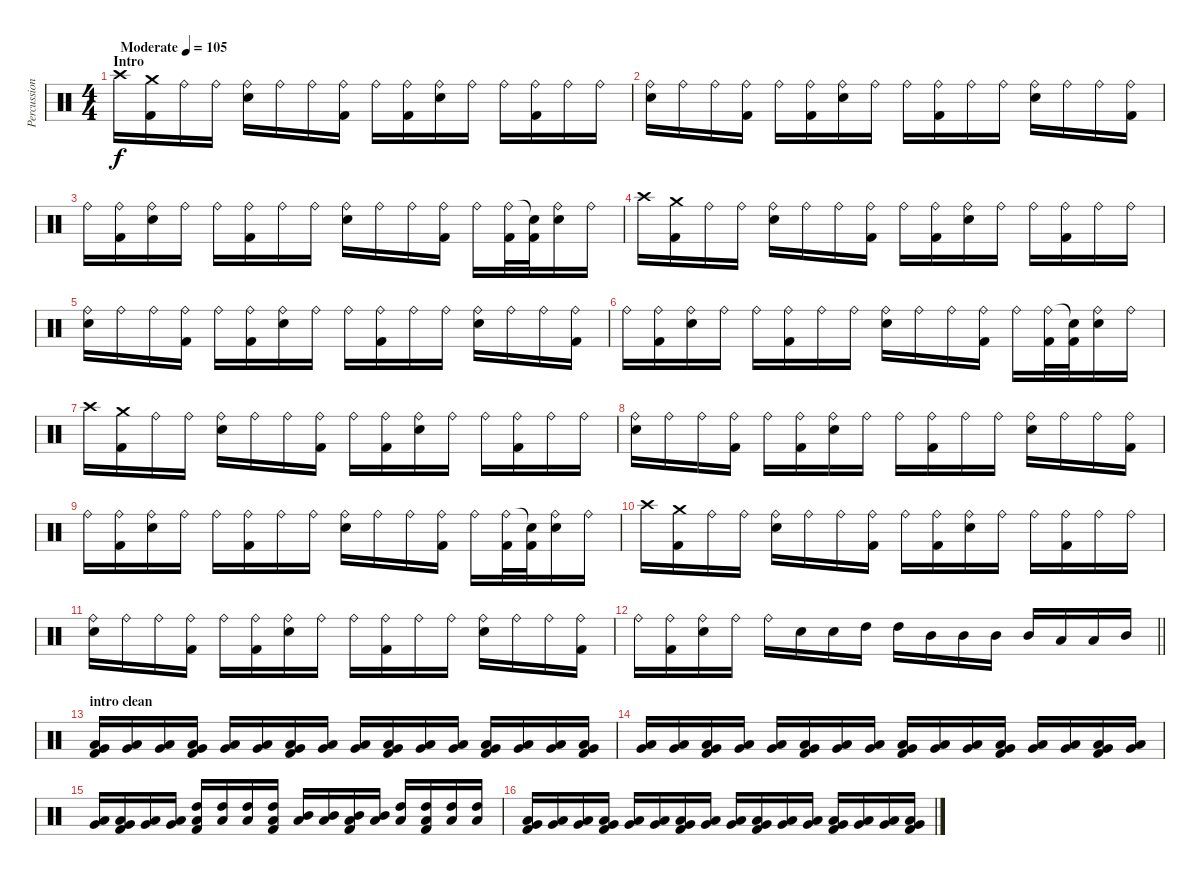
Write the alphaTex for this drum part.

\track ("Percussions" "Percussion") {instrument percussion}
\staff {score}
\articulation defaults
\ts (4 4)
\section ("" "Intro")
\tempo (105 "Moderate")
\clef neutral
\ks c "Crash high (hit)".16{dy f}
("Crash medium (hit)" "Kick (hit) 2").16 "Ride (bell)".16 "Ride (bell)".16 ("Ride (bell)" "Snare (hit) 2").16 "Ride (bell)".16 "Ride (bell)".16 ("Ride (bell)" "Kick (hit) 2").16 "Ride (bell)".16 ("Ride (bell)" "Kick (hit) 2").16 ("Ride (bell)" "Snare (hit) 2").16 "Ride (bell)".16 "Ride (bell)".16 ("Ride (bell)" "Kick (hit) 2").16 "Ride (bell)".16 "Ride (bell)".16 |
("Ride (bell)" "Snare (hit) 2").16 "Ride (bell)".16 "Ride (bell)".16 ("Ride (bell)" "Kick (hit) 2").16 "Ride (bell)".16 ("Ride (bell)" "Kick (hit) 2").16 ("Ride (bell)" "Snare (hit) 2").16 "Ride (bell)".16 "Ride (bell)".16 ("Ride (bell)" "Kick (hit) 2").16 "Ride (bell)".16 "Ride (bell)".16 ("Ride (bell)" "Snare (hit) 2").16 "Ride (bell)".16 "Ride (bell)".16 ("Ride (bell)" "Kick (hit) 2").16 |
"Ride (bell)".16 ("Ride (bell)" "Kick (hit) 2").16 ("Ride (bell)" "Snare (hit) 2").16 "Ride (bell)".16 "Ride (bell)".16 ("Ride (bell)" "Kick (hit) 2").16 "Ride (bell)".16 "Ride (bell)".16 ("Ride (bell)" "Snare (hit) 2").16 "Ride (bell)".16 "Ride (bell)".16 ("Ride (bell)" "Kick (hit) 2").16 "Ride (bell)".16 ("Ride (bell)" "Kick (hit) 2").32 ("Snare (hit)"{t} "Kick (hit) 2").32 ("Ride (bell)" "Snare (hit) 2").16 "Ride (bell)".16 |
"Crash high (hit)".16 ("Crash medium (hit)" "Kick (hit) 2").16 "Ride (bell)".16 "Ride (bell)".16 ("Ride (bell)" "Snare (hit) 2").16 "Ride (bell)".16 "Ride (bell)".16 ("Ride (bell)" "Kick (hit) 2").16 "Ride (bell)".16 ("Ride (bell)" "Kick (hit) 2").16 ("Ride (bell)" "Snare (hit) 2").16 "Ride (bell)".16 "Ride (bell)".16 ("Ride (bell)" "Kick (hit) 2").16 "Ride (bell)".16 "Ride (bell)".16 |
("Ride (bell)" "Snare (hit) 2").16 "Ride (bell)".16 "Ride (bell)".16 ("Ride (bell)" "Kick (hit) 2").16 "Ride (bell)".16 ("Ride (bell)" "Kick (hit) 2").16 ("Ride (bell)" "Snare (hit) 2").16 "Ride (bell)".16 "Ride (bell)".16 ("Ride (bell)" "Kick (hit) 2").16 "Ride (bell)".16 "Ride (bell)".16 ("Ride (bell)" "Snare (hit) 2").16 "Ride (bell)".16 "Ride (bell)".16 ("Ride (bell)" "Kick (hit) 2").16 |
"Ride (bell)".16 ("Ride (bell)" "Kick (hit) 2").16 ("Ride (bell)" "Snare (hit) 2").16 "Ride (bell)".16 "Ride (bell)".16 ("Ride (bell)" "Kick (hit) 2").16 "Ride (bell)".16 "Ride (bell)".16 ("Ride (bell)" "Snare (hit) 2").16 "Ride (bell)".16 "Ride (bell)".16 ("Ride (bell)" "Kick (hit) 2").16 "Ride (bell)".16 ("Ride (bell)" "Kick (hit) 2").32 ("Snare (hit)"{t} "Kick (hit) 2").32 ("Ride (bell)" "Snare (hit) 2").16 "Ride (bell)".16 |
"Crash high (hit)".16 ("Crash medium (hit)" "Kick (hit) 2").16 "Ride (bell)".16 "Ride (bell)".16 ("Ride (bell)" "Snare (hit) 2").16 "Ride (bell)".16 "Ride (bell)".16 ("Ride (bell)" "Kick (hit) 2").16 "Ride (bell)".16 ("Ride (bell)" "Kick (hit) 2").16 ("Ride (bell)" "Snare (hit) 2").16 "Ride (bell)".16 "Ride (bell)".16 ("Ride (bell)" "Kick (hit) 2").16 "Ride (bell)".16 "Ride (bell)".16 |
("Ride (bell)" "Snare (hit) 2").16 "Ride (bell)".16 "Ride (bell)".16 ("Ride (bell)" "Kick (hit) 2").16 "Ride (bell)".16 ("Ride (bell)" "Kick (hit) 2").16 ("Ride (bell)" "Snare (hit) 2").16 "Ride (bell)".16 "Ride (bell)".16 ("Ride (bell)" "Kick (hit) 2").16 "Ride (bell)".16 "Ride (bell)".16 ("Ride (bell)" "Snare (hit) 2").16 "Ride (bell)".16 "Ride (bell)".16 ("Ride (bell)" "Kick (hit) 2").16 |
"Ride (bell)".16 ("Ride (bell)" "Kick (hit) 2").16 ("Ride (bell)" "Snare (hit) 2").16 "Ride (bell)".16 "Ride (bell)".16 ("Ride (bell)" "Kick (hit) 2").16 "Ride (bell)".16 "Ride (bell)".16 ("Ride (bell)" "Snare (hit) 2").16 "Ride (bell)".16 "Ride (bell)".16 ("Ride (bell)" "Kick (hit) 2").16 "Ride (bell)".16 ("Ride (bell)" "Kick (hit) 2").32 ("Snare (hit)"{t} "Kick (hit) 2").32 ("Ride (bell)" "Snare (hit) 2").16 "Ride (bell)".16 |
"Crash high (hit)".16 ("Crash medium (hit)" "Kick (hit) 2").16 "Ride (bell)".16 "Ride (bell)".16 ("Ride (bell)" "Snare (hit) 2").16 "Ride (bell)".16 "Ride (bell)".16 ("Ride (bell)" "Kick (hit) 2").16 "Ride (bell)".16 ("Ride (bell)" "Kick (hit) 2").16 ("Ride (bell)" "Snare (hit) 2").16 "Ride (bell)".16 "Ride (bell)".16 ("Ride (bell)" "Kick (hit) 2").16 "Ride (bell)".16 "Ride (bell)".16 |
("Ride (bell)" "Snare (hit) 2").16 "Ride (bell)".16 "Ride (bell)".16 ("Ride (bell)" "Kick (hit) 2").16 "Ride (bell)".16 ("Ride (bell)" "Kick (hit) 2").16 ("Ride (bell)" "Snare (hit) 2").16 "Ride (bell)".16 "Ride (bell)".16 ("Ride (bell)" "Kick (hit) 2").16 "Ride (bell)".16 "Ride (bell)".16 ("Ride (bell)" "Snare (hit) 2").16 "Ride (bell)".16 "Ride (bell)".16 ("Ride (bell)" "Kick (hit) 2").16 |
\barLineRight lightlight "Ride (bell)".16
("Ride (bell)" "Kick (hit) 2").16 ("Ride (bell)" "Snare (hit) 2").16 "Ride (bell)".16 "Ride (bell)".16 "Snare (hit) 2".16 "Snare (hit) 2".16 "High Tom (hit)".16 "High Tom (hit)".16 "Mid Tom (hit)".16 "Mid Tom (hit)".16 "Mid Tom (hit)".16 "Mid Tom (hit)".16 "Low Tom (hit)".16 "Low Tom (hit)".16 "Mid Tom (hit)".16 |
\section ("" "intro clean")
("Very Low Tom (hit)" "Low Tom (hit)" "Kick (hit) 2").16 ("Very Low Tom (hit)" "Low Tom (hit)").16 ("Very Low Tom (hit)" "Low Tom (hit)").16 ("Very Low Tom (hit)" "Low Tom (hit)" "Kick (hit) 2").16 ("Very Low Tom (hit)" "Low Tom (hit)").16 ("Very Low Tom (hit)" "Low Tom (hit)").16 ("Very Low Tom (hit)" "Low Tom (hit)" "Kick (hit) 2").16 ("Very Low Tom (hit)" "Low Tom (hit)").16 ("Very Low Tom (hit)" "Low Tom (hit)").16 ("Very Low Tom (hit)" "Low Tom (hit)" "Kick (hit) 2").16 ("Very Low Tom (hit)" "Low Tom (hit)").16 ("Very Low Tom (hit)" "Low Tom (hit)").16 ("Very Low Tom (hit)" "Low Tom (hit)" "Kick (hit) 2").16 ("Very Low Tom (hit)" "Low Tom (hit)").16 ("Very Low Tom (hit)" "Low Tom (hit)").16 ("Very Low Tom (hit)" "Low Tom (hit)" "Kick (hit) 2").16 |
("Very Low Tom (hit)" "Low Tom (hit)").16 ("Very Low Tom (hit)" "Low Tom (hit)").16 ("Very Low Tom (hit)" "Low Tom (hit)" "Kick (hit) 2").16 ("Very Low Tom (hit)" "Low Tom (hit)").16 ("Very Low Tom (hit)" "Low Tom (hit)").16 ("Very Low Tom (hit)" "Low Tom (hit)" "Kick (hit) 2").16 ("Very Low Tom (hit)" "Low Tom (hit)").16 ("Very Low Tom (hit)" "Low Tom (hit)").16 ("Very Low Tom (hit)" "Low Tom (hit)" "Kick (hit) 2").16 ("Very Low Tom (hit)" "Low Tom (hit)").16 ("Very Low Tom (hit)" "Low Tom (hit)").16 ("Very Low Tom (hit)" "Low Tom (hit)" "Kick (hit) 2").16 ("Very Low Tom (hit)" "Low Tom (hit)").16 ("Very Low Tom (hit)" "Low Tom (hit)").16 ("Very Low Tom (hit)" "Low Tom (hit)" "Kick (hit) 2").16 ("Very Low Tom (hit)" "Low Tom (hit)").16 |
("Very Low Tom (hit)" "Low Tom (hit)").16 ("Very Low Tom (hit)" "Low Tom (hit)" "Kick (hit) 2").16 ("Very Low Tom (hit)" "Low Tom (hit)").16 ("Very Low Tom (hit)" "Low Tom (hit)").16 ("High Tom (hit)" "Low Tom (hit)" "Kick (hit) 2").16 ("High Tom (hit)" "Low Tom (hit)").16 ("High Tom (hit)" "Low Tom (hit)").16 ("High Tom (hit)" "Low Tom (hit)" "Kick (hit) 2").16 ("Mid Tom (hit)" "Low Tom (hit)").16 ("Mid Tom (hit)" "Low Tom (hit)").16 ("Mid Tom (hit)" "Low Tom (hit)" "Kick (hit) 2").16 ("Mid Tom (hit)" "Low Tom (hit)").16 ("High Tom (hit)" "Low Tom (hit)").16 ("High Tom (hit)" "Low Tom (hit)" "Kick (hit) 2").16 ("High Tom (hit)" "Low Tom (hit)").16 ("High Tom (hit)" "Low Tom (hit)").16 |
("Very Low Tom (hit)" "Low Tom (hit)" "Kick (hit) 2").16 ("Very Low Tom (hit)" "Low Tom (hit)").16 ("Very Low Tom (hit)" "Low Tom (hit)").16 ("Very Low Tom (hit)" "Low Tom (hit)" "Kick (hit) 2").16 ("Very Low Tom (hit)" "Low Tom (hit)").16 ("Very Low Tom (hit)" "Low Tom (hit)").16 ("Very Low Tom (hit)" "Low Tom (hit)" "Kick (hit) 2").16 ("Very Low Tom (hit)" "Low Tom (hit)").16 ("Very Low Tom (hit)" "Low Tom (hit)").16 ("Very Low Tom (hit)" "Low Tom (hit)" "Kick (hit) 2").16 ("Very Low Tom (hit)" "Low Tom (hit)").16 ("Very Low Tom (hit)" "Low Tom (hit)").16 ("Very Low Tom (hit)" "Low Tom (hit)" "Kick (hit) 2").16 ("Very Low Tom (hit)" "Low Tom (hit)").16 ("Very Low Tom (hit)" "Low Tom (hit)").16 ("Very Low Tom (hit)" "Low Tom (hit)" "Kick (hit) 2").16
